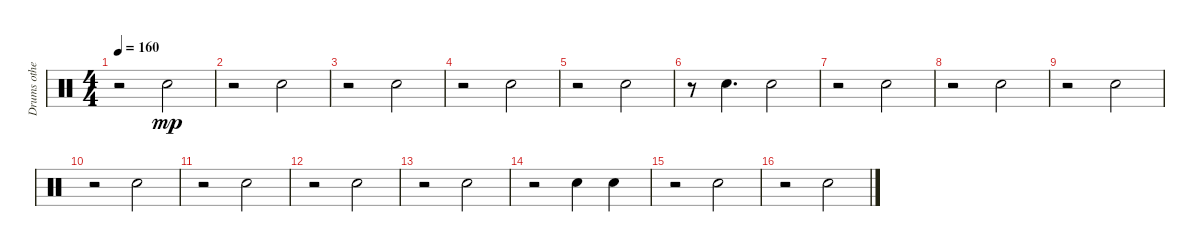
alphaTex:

\track ("Drums others" "Drums othe") {instrument percussion}
\staff {score}
\articulation defaults
\ts (4 4)
\tempo 160
\clef neutral
\ks c
r.2{dy mp} "Snare (hit) 2".2 |
r.2 "Snare (hit) 2".2 |
r.2 "Snare (hit) 2".2 |
r.2 "Snare (hit) 2".2 |
r.2 "Snare (hit) 2".2 |
r.8 "Snare (hit) 2".4{d} "Snare (hit) 2".2 |
r.2 "Snare (hit) 2".2 |
r.2 "Snare (hit) 2".2 |
r.2 "Snare (hit) 2".2 |
r.2 "Snare (hit) 2".2 |
r.2 "Snare (hit) 2".2 |
r.2 "Snare (hit) 2".2 |
r.2 "Snare (hit) 2".2 |
r.2 "Snare (hit) 2".4 "Snare (hit) 2".4 |
r.2 "Snare (hit) 2".2 |
r.2 "Snare (hit) 2".2
